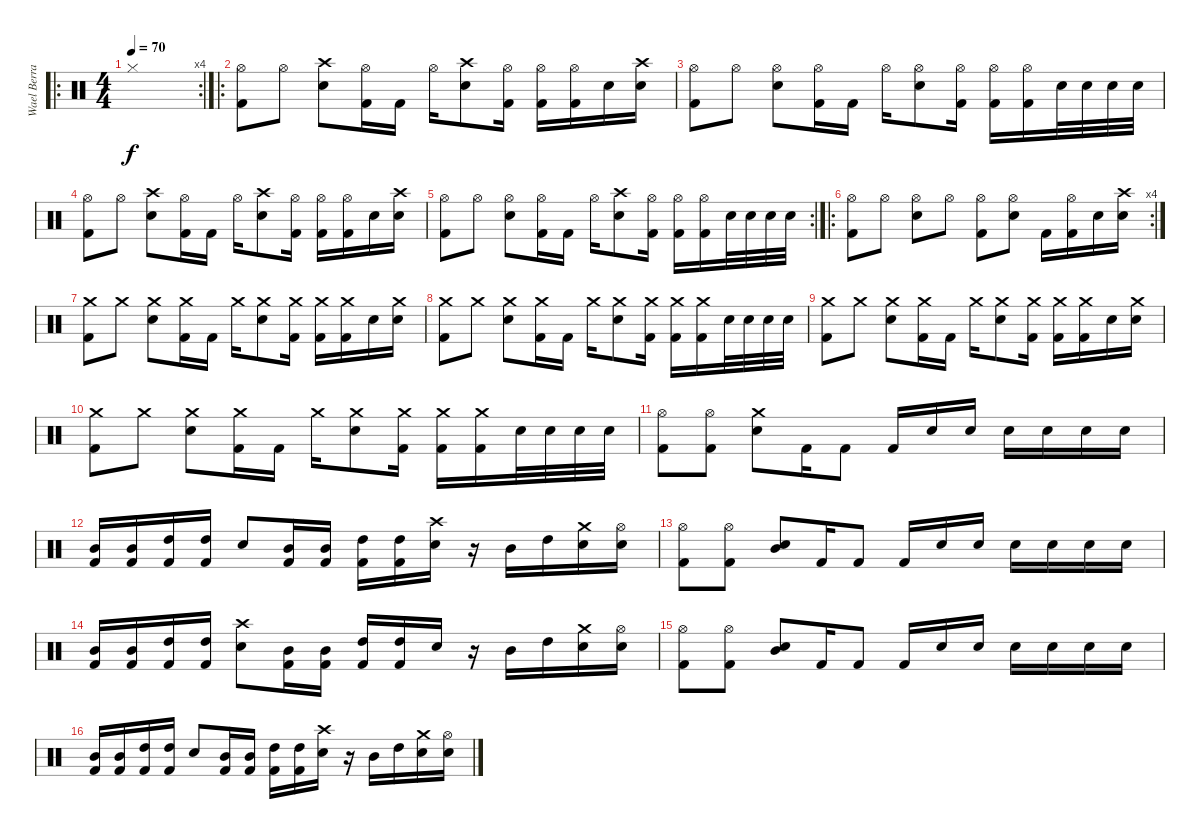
\track ("Wael Berrais" "Wael Berra") {instrument percussion}
\staff {score}
\articulation defaults
\ro
\rc 4
\ts (4 4)
\tempo 70
\clef neutral
\ks c "Hi-Hat (closed)".1{dy f}
|
\ro
("Hi-Hat (open)" "Kick (hit) 2").8 "Hi-Hat (open)".8 ("Crash high (hit)" "Electric Snare (hit)").8 ("Hi-Hat (open)" "Kick (hit) 2").16 "Kick (hit) 2".16 "Hi-Hat (open)".16 ("Crash high (hit)" "Electric Snare (hit)").8 ("Hi-Hat (open)" "Kick (hit) 2").16 ("Hi-Hat (open)" "Kick (hit) 2").16 ("Hi-Hat (open)" "Kick (hit) 2").16 "Electric Snare (hit)".16 ("Electric Snare (hit)" "Crash high (hit)").16 |
("Hi-Hat (open)" "Kick (hit) 2").8 "Hi-Hat (open)".8 ("Hi-Hat (open)" "Electric Snare (hit)").8 ("Hi-Hat (open)" "Kick (hit) 2").16 "Kick (hit) 2".16 "Hi-Hat (open)".16 ("Hi-Hat (open)" "Electric Snare (hit)").8 ("Hi-Hat (open)" "Kick (hit) 2").16 ("Hi-Hat (open)" "Kick (hit) 2").16 ("Hi-Hat (open)" "Kick (hit) 2").16 "Electric Snare (hit)".32 "Electric Snare (hit)".32 "Electric Snare (hit)".32 "Electric Snare (hit)".32 |
("Hi-Hat (open)" "Kick (hit) 2").8 "Hi-Hat (open)".8 ("Crash high (hit)" "Electric Snare (hit)").8 ("Hi-Hat (open)" "Kick (hit) 2").16 "Kick (hit) 2".16 "Hi-Hat (open)".16 ("Crash high (hit)" "Electric Snare (hit)").8 ("Hi-Hat (open)" "Kick (hit) 2").16 ("Hi-Hat (open)" "Kick (hit) 2").16 ("Hi-Hat (open)" "Kick (hit) 2").16 "Electric Snare (hit)".16 ("Electric Snare (hit)" "Crash high (hit)").16 |
\rc 2
("Hi-Hat (open)" "Kick (hit) 2").8 "Hi-Hat (open)".8 ("Hi-Hat (open)" "Electric Snare (hit)").8 ("Hi-Hat (open)" "Kick (hit) 2").16 "Kick (hit) 2".16 "Hi-Hat (open)".16 ("Crash high (hit)" "Electric Snare (hit)").8 ("Hi-Hat (open)" "Kick (hit) 2").16 ("Hi-Hat (open)" "Kick (hit) 2").16 ("Hi-Hat (open)" "Kick (hit) 2").16 "Electric Snare (hit)".32 "Electric Snare (hit)".32 "Electric Snare (hit)".32 "Electric Snare (hit)".32 |
\ro
\rc 4
("Hi-Hat (open)" "Kick (hit) 2").8 "Hi-Hat (open)".8 ("Hi-Hat (open)" "Electric Snare (hit)").8 "Hi-Hat (open)".8 ("Kick (hit) 2" "Hi-Hat (open)").8 ("Hi-Hat (open)" "Electric Snare (hit)").8 "Kick (hit) 2".16 ("Hi-Hat (open)" "Kick (hit) 2").16 "Electric Snare (hit)".16 ("Electric Snare (hit)" "Crash high (hit)").16 |
("Crash medium (hit)" "Kick (hit) 2").8 "Crash medium (hit)".8 ("Crash medium (hit)" "Electric Snare (hit)").8 ("Crash medium (hit)" "Kick (hit) 2").16 "Kick (hit) 2".16 "Crash medium (hit)".16 ("Crash medium (hit)" "Electric Snare (hit)").8 ("Crash medium (hit)" "Kick (hit) 2").16 ("Crash medium (hit)" "Kick (hit) 2").16 ("Crash medium (hit)" "Kick (hit) 2").16 "Electric Snare (hit)".16 ("Electric Snare (hit)" "Crash medium (hit)").16 |
("Crash medium (hit)" "Kick (hit) 2").8 "Crash medium (hit)".8 ("Crash medium (hit)" "Electric Snare (hit)").8 ("Crash medium (hit)" "Kick (hit) 2").16 "Kick (hit) 2".16 "Crash medium (hit)".16 ("Crash medium (hit)" "Electric Snare (hit)").8 ("Crash medium (hit)" "Kick (hit) 2").16 ("Crash medium (hit)" "Kick (hit) 2").16 ("Crash medium (hit)" "Kick (hit) 2").16 "Electric Snare (hit)".32 "Electric Snare (hit)".32 "Electric Snare (hit)".32 "Electric Snare (hit)".32 |
("Crash medium (hit)" "Kick (hit) 2").8 "Crash medium (hit)".8 ("Crash medium (hit)" "Electric Snare (hit)").8 ("Crash medium (hit)" "Kick (hit) 2").16 "Kick (hit) 2".16 "Crash medium (hit)".16 ("Crash medium (hit)" "Electric Snare (hit)").8 ("Crash medium (hit)" "Kick (hit) 2").16 ("Crash medium (hit)" "Kick (hit) 2").16 ("Crash medium (hit)" "Kick (hit) 2").16 "Electric Snare (hit)".16 ("Electric Snare (hit)" "Crash medium (hit)").16 |
("Crash medium (hit)" "Kick (hit) 2").8 "Crash medium (hit)".8 ("Crash medium (hit)" "Electric Snare (hit)").8 ("Crash medium (hit)" "Kick (hit) 2").16 "Kick (hit) 2".16 "Crash medium (hit)".16 ("Crash medium (hit)" "Electric Snare (hit)").8 ("Crash medium (hit)" "Kick (hit) 2").16 ("Crash medium (hit)" "Kick (hit) 2").16 ("Crash medium (hit)" "Kick (hit) 2").16 "Electric Snare (hit)".32 "Electric Snare (hit)".32 "Electric Snare (hit)".32 "Electric Snare (hit)".32 |
("Hi-Hat (open)" "Kick (hit) 2").8 ("Hi-Hat (open)" "Kick (hit) 2").8 ("Crash medium (hit)" "Electric Snare (hit)").8 "Kick (hit) 2".16 "Kick (hit) 2".8 "Kick (hit) 2".16 "Electric Snare (hit)".16 "Electric Snare (hit)".16 "Electric Snare (hit)".16 "Electric Snare (hit)".16 "Electric Snare (hit)".16 "Electric Snare (hit)".16 |
("Mid Tom (hit)" "Kick (hit) 2").16 ("Mid Tom (hit)" "Kick (hit) 2").16 ("High Tom (hit)" "Kick (hit) 2").16 ("High Tom (hit)" "Kick (hit) 2").16 "Electric Snare (hit)".8 ("Mid Tom (hit)" "Kick (hit) 2").16 ("Mid Tom (hit)" "Kick (hit) 2").16 ("High Tom (hit)" "Kick (hit) 2").16 ("High Tom (hit)" "Kick (hit) 2").16 ("Electric Snare (hit)" "Crash high (hit)").16 r.16 "Mid Tom (hit)".16 "High Tom (hit)".16 ("Electric Snare (hit)" "Crash medium (hit)").16 ("Hi-Hat (open)" "Electric Snare (hit)").16 |
("Hi-Hat (open)" "Kick (hit) 2").8 ("Hi-Hat (open)" "Kick (hit) 2").8 ("Mid Tom (hit)" "Electric Snare (hit)").8 "Kick (hit) 2".16 "Kick (hit) 2".8 "Kick (hit) 2".16 "Electric Snare (hit)".16 "Electric Snare (hit)".16 "Electric Snare (hit)".16 "Electric Snare (hit)".16 "Electric Snare (hit)".16 "Electric Snare (hit)".16 |
("Mid Tom (hit)" "Kick (hit) 2").16 ("Mid Tom (hit)" "Kick (hit) 2").16 ("High Tom (hit)" "Kick (hit) 2").16 ("High Tom (hit)" "Kick (hit) 2").16 ("Electric Snare (hit)" "Crash high (hit)").8 ("Mid Tom (hit)" "Kick (hit) 2").16 ("Mid Tom (hit)" "Kick (hit) 2").16 ("High Tom (hit)" "Kick (hit) 2").16 ("High Tom (hit)" "Kick (hit) 2").16 "Electric Snare (hit)".16 r.16 "Mid Tom (hit)".16 "High Tom (hit)".16 ("Electric Snare (hit)" "Crash medium (hit)").16 ("Hi-Hat (open)" "Electric Snare (hit)").16 |
("Hi-Hat (open)" "Kick (hit) 2").8 ("Hi-Hat (open)" "Kick (hit) 2").8 ("Mid Tom (hit)" "Electric Snare (hit)").8 "Kick (hit) 2".16 "Kick (hit) 2".8 "Kick (hit) 2".16 "Electric Snare (hit)".16 "Electric Snare (hit)".16 "Electric Snare (hit)".16 "Electric Snare (hit)".16 "Electric Snare (hit)".16 "Electric Snare (hit)".16 |
("Mid Tom (hit)" "Kick (hit) 2").16 ("Mid Tom (hit)" "Kick (hit) 2").16 ("High Tom (hit)" "Kick (hit) 2").16 ("High Tom (hit)" "Kick (hit) 2").16 "Electric Snare (hit)".8 ("Mid Tom (hit)" "Kick (hit) 2").16 ("Mid Tom (hit)" "Kick (hit) 2").16 ("High Tom (hit)" "Kick (hit) 2").16 ("High Tom (hit)" "Kick (hit) 2").16 ("Electric Snare (hit)" "Crash high (hit)").16 r.16 "Mid Tom (hit)".16 "High Tom (hit)".16 ("Electric Snare (hit)" "Crash medium (hit)").16 ("Hi-Hat (open)" "Electric Snare (hit)").16
